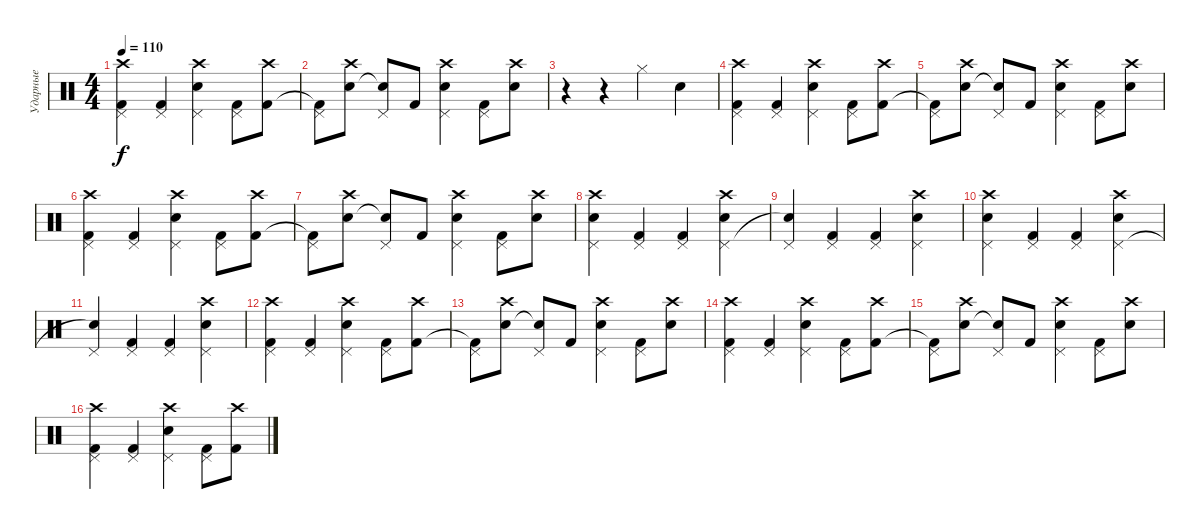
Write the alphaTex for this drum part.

\track ("Ударные" "Ударные") {instrument percussion}
\staff {score}
\articulation defaults
\ts (4 4)
\tempo 110
\clef neutral
\ks c
("Crash high (hit)" "Pedal Hi-Hat (hit)" "Kick (hit) 2").4{dy f} ("Pedal Hi-Hat (hit)" "Kick (hit) 2").4 ("Crash high (hit)" "Pedal Hi-Hat (hit)" "Electric Snare (hit)").4 ("Pedal Hi-Hat (hit)" "Kick (hit) 2").8 ("Crash high (hit)" "Kick (hit) 2").8 |
("Pedal Hi-Hat (hit)" "Kick (hit) 2"{t}).8 ("Crash high (hit)" "Snare (hit) 2").8 ("Pedal Hi-Hat (hit)" "Snare (hit) 2"{t}).8 "Kick (hit) 2".8 ("Crash high (hit)" "Pedal Hi-Hat (hit)" "Electric Snare (hit)").4 ("Pedal Hi-Hat (hit)" "Kick (hit) 2").8 ("Crash high (hit)" "Snare (hit) 2").8 |
r.4 r.4 "Hi-Hat (closed)".4 "Electric Snare (hit)".4 |
("Crash high (hit)" "Pedal Hi-Hat (hit)" "Kick (hit) 2").4 ("Pedal Hi-Hat (hit)" "Kick (hit) 2").4 ("Crash high (hit)" "Pedal Hi-Hat (hit)" "Electric Snare (hit)").4 ("Pedal Hi-Hat (hit)" "Kick (hit) 2").8 ("Crash high (hit)" "Kick (hit) 2").8 |
("Pedal Hi-Hat (hit)" "Kick (hit) 2"{t}).8 ("Crash high (hit)" "Snare (hit) 2").8 ("Pedal Hi-Hat (hit)" "Snare (hit) 2"{t}).8 "Kick (hit) 2".8 ("Crash high (hit)" "Pedal Hi-Hat (hit)" "Electric Snare (hit)").4 ("Pedal Hi-Hat (hit)" "Kick (hit) 2").8 ("Crash high (hit)" "Snare (hit) 2").8 |
("Crash high (hit)" "Pedal Hi-Hat (hit)" "Kick (hit) 2").4 ("Pedal Hi-Hat (hit)" "Kick (hit) 2").4 ("Crash high (hit)" "Pedal Hi-Hat (hit)" "Electric Snare (hit)").4 ("Pedal Hi-Hat (hit)" "Kick (hit) 2").8 ("Crash high (hit)" "Kick (hit) 2").8 |
("Pedal Hi-Hat (hit)" "Kick (hit) 2"{t}).8 ("Crash high (hit)" "Snare (hit) 2").8 ("Pedal Hi-Hat (hit)" "Snare (hit) 2"{t}).8 "Kick (hit) 2".8 ("Crash high (hit)" "Pedal Hi-Hat (hit)" "Electric Snare (hit)").4 ("Pedal Hi-Hat (hit)" "Kick (hit) 2").8 ("Crash high (hit)" "Snare (hit) 2").8 |
("Crash high (hit)" "Pedal Hi-Hat (hit)" "Electric Snare (hit)").4 ("Pedal Hi-Hat (hit)" "Kick (hit) 2").4 ("Pedal Hi-Hat (hit)" "Kick (hit) 2").4 ("Crash high (hit)" "Pedal Hi-Hat (hit)" "Electric Snare (hit)").4 |
("Pedal Hi-Hat (hit)" "Electric Snare (hit)"{t}).4 ("Pedal Hi-Hat (hit)" "Kick (hit) 2").4 ("Pedal Hi-Hat (hit)" "Kick (hit) 2").4 ("Crash high (hit)" "Pedal Hi-Hat (hit)" "Electric Snare (hit)").4 |
("Crash high (hit)" "Pedal Hi-Hat (hit)" "Electric Snare (hit)").4 ("Pedal Hi-Hat (hit)" "Kick (hit) 2").4 ("Pedal Hi-Hat (hit)" "Kick (hit) 2").4 ("Crash high (hit)" "Pedal Hi-Hat (hit)" "Electric Snare (hit)").4 |
("Pedal Hi-Hat (hit)" "Electric Snare (hit)"{t}).4 ("Pedal Hi-Hat (hit)" "Kick (hit) 2").4 ("Pedal Hi-Hat (hit)" "Kick (hit) 2").4 ("Crash high (hit)" "Pedal Hi-Hat (hit)" "Electric Snare (hit)").4 |
("Crash high (hit)" "Pedal Hi-Hat (hit)" "Kick (hit) 2").4 ("Pedal Hi-Hat (hit)" "Kick (hit) 2").4 ("Crash high (hit)" "Pedal Hi-Hat (hit)" "Electric Snare (hit)").4 ("Pedal Hi-Hat (hit)" "Kick (hit) 2").8 ("Crash high (hit)" "Kick (hit) 2").8 |
("Pedal Hi-Hat (hit)" "Kick (hit) 2"{t}).8 ("Crash high (hit)" "Snare (hit) 2").8 ("Pedal Hi-Hat (hit)" "Snare (hit) 2"{t}).8 "Kick (hit) 2".8 ("Crash high (hit)" "Pedal Hi-Hat (hit)" "Electric Snare (hit)").4 ("Pedal Hi-Hat (hit)" "Kick (hit) 2").8 ("Crash high (hit)" "Snare (hit) 2").8 |
("Crash high (hit)" "Pedal Hi-Hat (hit)" "Kick (hit) 2").4 ("Pedal Hi-Hat (hit)" "Kick (hit) 2").4 ("Crash high (hit)" "Pedal Hi-Hat (hit)" "Electric Snare (hit)").4 ("Pedal Hi-Hat (hit)" "Kick (hit) 2").8 ("Crash high (hit)" "Kick (hit) 2").8 |
("Pedal Hi-Hat (hit)" "Kick (hit) 2"{t}).8 ("Crash high (hit)" "Snare (hit) 2").8 ("Pedal Hi-Hat (hit)" "Snare (hit) 2"{t}).8 "Kick (hit) 2".8 ("Crash high (hit)" "Pedal Hi-Hat (hit)" "Electric Snare (hit)").4 ("Pedal Hi-Hat (hit)" "Kick (hit) 2").8 ("Crash high (hit)" "Snare (hit) 2").8 |
("Crash high (hit)" "Pedal Hi-Hat (hit)" "Kick (hit) 2").4 ("Pedal Hi-Hat (hit)" "Kick (hit) 2").4 ("Crash high (hit)" "Pedal Hi-Hat (hit)" "Electric Snare (hit)").4 ("Pedal Hi-Hat (hit)" "Kick (hit) 2").8 ("Crash high (hit)" "Kick (hit) 2").8
